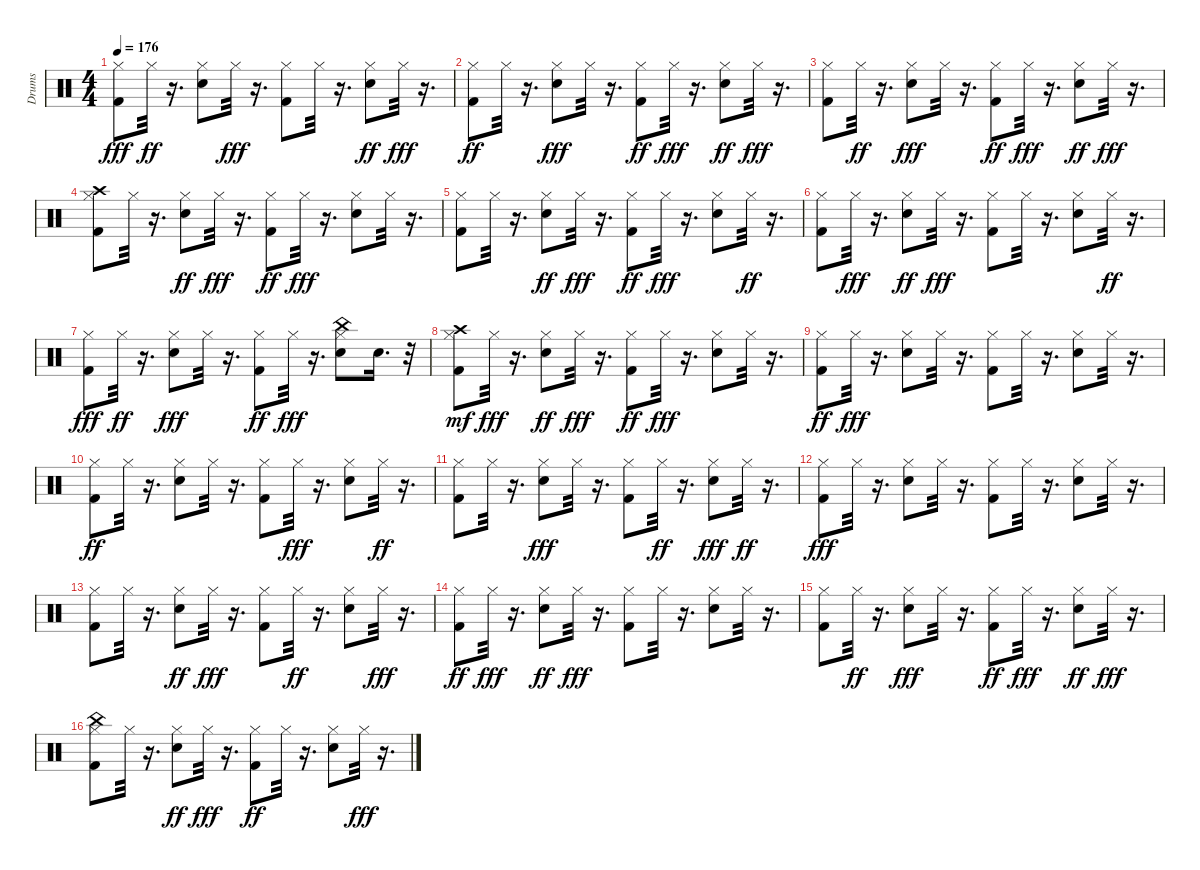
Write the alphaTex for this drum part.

\track ("Drums" "Drums") {instrument percussion}
\staff {score}
\articulation defaults
\ts (4 4)
\tempo 176
\clef neutral
\ks c
("Kick (hit) 2" "Hi-Hat (closed)").8{dy fff} "Hi-Hat (closed)".32{dy ff} r.16{d} ("Hi-Hat (closed)" "Electric Snare (hit)").8 "Hi-Hat (closed)".32{dy fff} r.16{d} ("Hi-Hat (closed)" "Kick (hit) 2").8 "Hi-Hat (closed)".32 r.16{d} ("Electric Snare (hit)" "Hi-Hat (closed)").8{dy ff} "Hi-Hat (closed)".32{dy fff} r.16{d} |
("Hi-Hat (closed)" "Kick (hit) 2").8{dy ff} "Hi-Hat (closed)".32 r.16{d} ("Electric Snare (hit)" "Hi-Hat (closed)").8{dy fff} "Hi-Hat (closed)".32 r.16{d} ("Hi-Hat (closed)" "Kick (hit) 2").8{dy ff} "Hi-Hat (closed)".32{dy fff} r.16{d} ("Hi-Hat (closed)" "Electric Snare (hit)").8{dy ff} "Hi-Hat (closed)".32{dy fff} r.16{d} |
("Kick (hit) 2" "Hi-Hat (closed)").8 "Hi-Hat (closed)".32{dy ff} r.16{d} ("Electric Snare (hit)" "Hi-Hat (closed)").8{dy fff} "Hi-Hat (closed)".32 r.16{d} ("Hi-Hat (closed)" "Kick (hit) 2").8{dy ff} "Hi-Hat (closed)".32{dy fff} r.16{d} ("Hi-Hat (closed)" "Electric Snare (hit)").8{dy ff} "Hi-Hat (closed)".32{dy fff} r.16{d} |
("Hi-Hat (closed)" "Kick (hit) 2" "Crash high (hit)").8 "Hi-Hat (closed)".32 r.16{d} ("Hi-Hat (closed)" "Electric Snare (hit)").8{dy ff} "Hi-Hat (closed)".32{dy fff} r.16{d} ("Hi-Hat (closed)" "Kick (hit) 2").8{dy ff} "Hi-Hat (closed)".32{dy fff} r.16{d} ("Electric Snare (hit)" "Hi-Hat (closed)").8 "Hi-Hat (closed)".32 r.16{d} |
("Kick (hit) 2" "Hi-Hat (closed)").8 "Hi-Hat (closed)".32 r.16{d} ("Electric Snare (hit)" "Hi-Hat (closed)").8{dy ff} "Hi-Hat (closed)".32{dy fff} r.16{d} ("Hi-Hat (closed)" "Kick (hit) 2").8{dy ff} "Hi-Hat (closed)".32{dy fff} r.16{d} ("Electric Snare (hit)" "Hi-Hat (closed)").8 "Hi-Hat (closed)".32{dy ff} r.16{d} |
("Hi-Hat (closed)" "Kick (hit) 2").8 "Hi-Hat (closed)".32{dy fff} r.16{d} ("Electric Snare (hit)" "Hi-Hat (closed)").8{dy ff} "Hi-Hat (closed)".32{dy fff} r.16{d} ("Kick (hit) 2" "Hi-Hat (closed)").8 "Hi-Hat (closed)".32 r.16{d} ("Electric Snare (hit)" "Hi-Hat (closed)").8 "Hi-Hat (closed)".32{dy ff} r.16{d} |
("Hi-Hat (closed)" "Kick (hit) 2").8{dy fff} "Hi-Hat (closed)".32{dy ff} r.16{d} ("Electric Snare (hit)" "Hi-Hat (closed)").8{dy fff} "Hi-Hat (closed)".32 r.16{d} ("Hi-Hat (closed)" "Kick (hit) 2").8{dy ff} "Hi-Hat (closed)".32{dy fff} r.16{d} ("Hi-Hat (closed)" "Electric Snare (hit)" "China (hit)").8 "Electric Snare (hit)".16{d} r.32 |
("Kick (hit) 2" "Hi-Hat (closed)" "Crash high (hit)").8{dy mf} "Hi-Hat (closed)".32{dy fff} r.16{d} ("Hi-Hat (closed)" "Electric Snare (hit)").8{dy ff} "Hi-Hat (closed)".32{dy fff} r.16{d} ("Hi-Hat (closed)" "Kick (hit) 2").8{dy ff} "Hi-Hat (closed)".32{dy fff} r.16{d} ("Electric Snare (hit)" "Hi-Hat (closed)").8 "Hi-Hat (closed)".32 r.16{d} |
("Hi-Hat (closed)" "Kick (hit) 2").8{dy ff} "Hi-Hat (closed)".32{dy fff} r.16{d} ("Electric Snare (hit)" "Hi-Hat (closed)").8 "Hi-Hat (closed)".32 r.16{d} ("Hi-Hat (closed)" "Kick (hit) 2").8 "Hi-Hat (closed)".32 r.16{d} ("Hi-Hat (closed)" "Electric Snare (hit)").8 "Hi-Hat (closed)".32 r.16{d} |
("Hi-Hat (closed)" "Kick (hit) 2").8{dy ff} "Hi-Hat (closed)".32 r.16{d} ("Electric Snare (hit)" "Hi-Hat (closed)").8 "Hi-Hat (closed)".32 r.16{d} ("Hi-Hat (closed)" "Kick (hit) 2").8 "Hi-Hat (closed)".32{dy fff} r.16{d} ("Electric Snare (hit)" "Hi-Hat (closed)").8 "Hi-Hat (closed)".32{dy ff} r.16{d} |
("Kick (hit) 2" "Hi-Hat (closed)").8 "Hi-Hat (closed)".32 r.16{d} ("Electric Snare (hit)" "Hi-Hat (closed)").8{dy fff} "Hi-Hat (closed)".32 r.16{d} ("Kick (hit) 2" "Hi-Hat (closed)").8 "Hi-Hat (closed)".32{dy ff} r.16{d} ("Hi-Hat (closed)" "Electric Snare (hit)").8{dy fff} "Hi-Hat (closed)".32{dy ff} r.16{d} |
("Kick (hit) 2" "Hi-Hat (closed)").8{dy fff} "Hi-Hat (closed)".32 r.16{d} ("Hi-Hat (closed)" "Electric Snare (hit)").8 "Hi-Hat (closed)".32 r.16{d} ("Hi-Hat (closed)" "Kick (hit) 2").8 "Hi-Hat (closed)".32 r.16{d} ("Hi-Hat (closed)" "Electric Snare (hit)").8 "Hi-Hat (closed)".32 r.16{d} |
("Hi-Hat (closed)" "Kick (hit) 2").8 "Hi-Hat (closed)".32 r.16{d} ("Electric Snare (hit)" "Hi-Hat (closed)").8{dy ff} "Hi-Hat (closed)".32{dy fff} r.16{d} ("Kick (hit) 2" "Hi-Hat (closed)").8 "Hi-Hat (closed)".32{dy ff} r.16{d} ("Hi-Hat (closed)" "Electric Snare (hit)").8 "Hi-Hat (closed)".32{dy fff} r.16{d} |
("Hi-Hat (closed)" "Kick (hit) 2").8{dy ff} "Hi-Hat (closed)".32{dy fff} r.16{d} ("Hi-Hat (closed)" "Electric Snare (hit)").8{dy ff} "Hi-Hat (closed)".32{dy fff} r.16{d} ("Kick (hit) 2" "Hi-Hat (closed)").8 "Hi-Hat (closed)".32 r.16{d} ("Electric Snare (hit)" "Hi-Hat (closed)").8 "Hi-Hat (closed)".32 r.16{d} |
("Kick (hit) 2" "Hi-Hat (closed)").8 "Hi-Hat (closed)".32{dy ff} r.16{d} ("Hi-Hat (closed)" "Electric Snare (hit)").8{dy fff} "Hi-Hat (closed)".32 r.16{d} ("Hi-Hat (closed)" "Kick (hit) 2").8{dy ff} "Hi-Hat (closed)".32{dy fff} r.16{d} ("Hi-Hat (closed)" "Electric Snare (hit)").8{dy ff} "Hi-Hat (closed)".32{dy fff} r.16{d} |
("Kick (hit) 2" "China (hit)" "Hi-Hat (closed)").8 "Hi-Hat (closed)".32 r.16{d} ("Electric Snare (hit)" "Hi-Hat (closed)").8{dy ff} "Hi-Hat (closed)".32{dy fff} r.16{d} ("Hi-Hat (closed)" "Kick (hit) 2").8{dy ff} "Hi-Hat (closed)".32 r.16{d} ("Hi-Hat (closed)" "Electric Snare (hit)").8 "Hi-Hat (closed)".32{dy fff} r.16{d}
